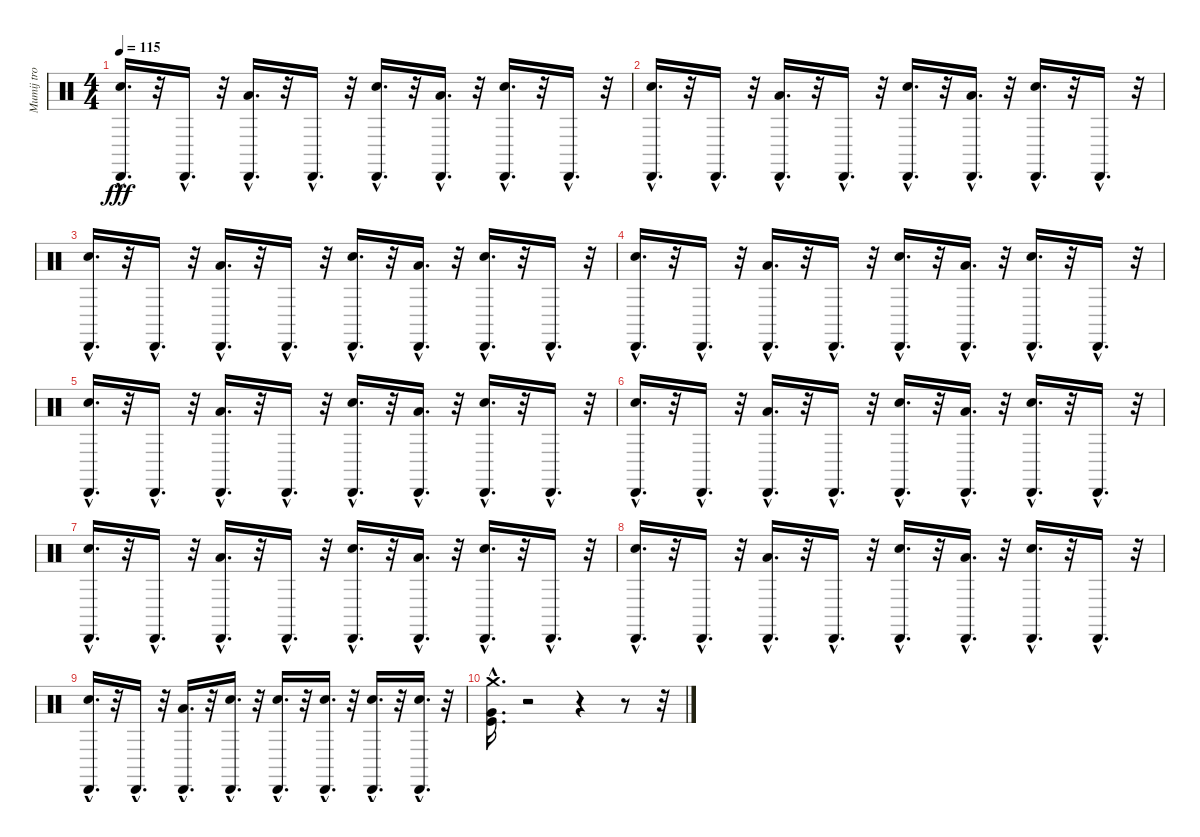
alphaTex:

\track (" Mumij troll" " Mumij tro") {instrument percussion}
\staff {score}
\articulation defaults
\ts (4 4)
\tempo 115
\clef neutral
\ks c
("Electric Snare (hit)"{hac} "Cabasa (hit)"{hac}).16{d dy fff} r.32 "Cabasa (hit)"{hac}.16{d} r.32 ("Low Tom (hit)"{hac} "Cabasa (hit)"{hac}).16{d} r.32 "Cabasa (hit)"{hac}.16{d} r.32 ("Electric Snare (hit)"{hac} "Cabasa (hit)"{hac}).16{d} r.32 ("Low Floor Tom (hit)"{hac} "Cabasa (hit)"{hac}).16{d} r.32 ("Snare (hit) 2"{hac} "Cabasa (hit)"{hac}).16{d} r.32 "Cabasa (hit)"{hac}.16{d} r.32 |
("Electric Snare (hit)"{hac} "Cabasa (hit)"{hac}).16{d} r.32 "Cabasa (hit)"{hac}.16{d} r.32 ("Low Tom (hit)"{hac} "Cabasa (hit)"{hac}).16{d} r.32 "Cabasa (hit)"{hac}.16{d} r.32 ("Electric Snare (hit)"{hac} "Cabasa (hit)"{hac}).16{d} r.32 ("Low Floor Tom (hit)"{hac} "Cabasa (hit)"{hac}).16{d} r.32 ("Snare (hit) 2"{hac} "Cabasa (hit)"{hac}).16{d} r.32 "Cabasa (hit)"{hac}.16{d} r.32 |
("Electric Snare (hit)"{hac} "Cabasa (hit)"{hac}).16{d} r.32 "Cabasa (hit)"{hac}.16{d} r.32 ("Low Tom (hit)"{hac} "Cabasa (hit)"{hac}).16{d} r.32 "Cabasa (hit)"{hac}.16{d} r.32 ("Electric Snare (hit)"{hac} "Cabasa (hit)"{hac}).16{d} r.32 ("Low Floor Tom (hit)"{hac} "Cabasa (hit)"{hac}).16{d} r.32 ("Snare (hit) 2"{hac} "Cabasa (hit)"{hac}).16{d} r.32 "Cabasa (hit)"{hac}.16{d} r.32 |
("Electric Snare (hit)"{hac} "Cabasa (hit)"{hac}).16{d} r.32 "Cabasa (hit)"{hac}.16{d} r.32 ("Low Tom (hit)"{hac} "Cabasa (hit)"{hac}).16{d} r.32 "Cabasa (hit)"{hac}.16{d} r.32 ("Electric Snare (hit)"{hac} "Cabasa (hit)"{hac}).16{d} r.32 ("Low Floor Tom (hit)"{hac} "Cabasa (hit)"{hac}).16{d} r.32 ("Snare (hit) 2"{hac} "Cabasa (hit)"{hac}).16{d} r.32 "Cabasa (hit)"{hac}.16{d} r.32 |
("Electric Snare (hit)"{hac} "Cabasa (hit)"{hac}).16{d} r.32 "Cabasa (hit)"{hac}.16{d} r.32 ("Low Tom (hit)"{hac} "Cabasa (hit)"{hac}).16{d} r.32 "Cabasa (hit)"{hac}.16{d} r.32 ("Electric Snare (hit)"{hac} "Cabasa (hit)"{hac}).16{d} r.32 ("Low Floor Tom (hit)"{hac} "Cabasa (hit)"{hac}).16{d} r.32 ("Snare (hit) 2"{hac} "Cabasa (hit)"{hac}).16{d} r.32 "Cabasa (hit)"{hac}.16{d} r.32 |
("Electric Snare (hit)"{hac} "Cabasa (hit)"{hac}).16{d} r.32 "Cabasa (hit)"{hac}.16{d} r.32 ("Low Tom (hit)"{hac} "Cabasa (hit)"{hac}).16{d} r.32 "Cabasa (hit)"{hac}.16{d} r.32 ("Electric Snare (hit)"{hac} "Cabasa (hit)"{hac}).16{d} r.32 ("Low Floor Tom (hit)"{hac} "Cabasa (hit)"{hac}).16{d} r.32 ("Snare (hit) 2"{hac} "Cabasa (hit)"{hac}).16{d} r.32 "Cabasa (hit)"{hac}.16{d} r.32 |
("Electric Snare (hit)"{hac} "Cabasa (hit)"{hac}).16{d} r.32 "Cabasa (hit)"{hac}.16{d} r.32 ("Low Tom (hit)"{hac} "Cabasa (hit)"{hac}).16{d} r.32 "Cabasa (hit)"{hac}.16{d} r.32 ("Electric Snare (hit)"{hac} "Cabasa (hit)"{hac}).16{d} r.32 ("Low Floor Tom (hit)"{hac} "Cabasa (hit)"{hac}).16{d} r.32 ("Snare (hit) 2"{hac} "Cabasa (hit)"{hac}).16{d} r.32 "Cabasa (hit)"{hac}.16{d} r.32 |
("Electric Snare (hit)"{hac} "Cabasa (hit)"{hac}).16{d} r.32 "Cabasa (hit)"{hac}.16{d} r.32 ("Low Tom (hit)"{hac} "Cabasa (hit)"{hac}).16{d} r.32 "Cabasa (hit)"{hac}.16{d} r.32 ("Electric Snare (hit)"{hac} "Cabasa (hit)"{hac}).16{d} r.32 ("Low Floor Tom (hit)"{hac} "Cabasa (hit)"{hac}).16{d} r.32 ("Snare (hit) 2"{hac} "Cabasa (hit)"{hac}).16{d} r.32 "Cabasa (hit)"{hac}.16{d} r.32 |
("Electric Snare (hit)"{hac} "Cabasa (hit)"{hac}).16{d} r.32 "Cabasa (hit)"{hac}.16{d} r.32 ("Low Tom (hit)"{hac} "Cabasa (hit)"{hac}).16{d} r.32 ("Electric Snare (hit)"{hac} "Cabasa (hit)"{hac}).16{d} r.32 ("Electric Snare (hit)"{hac} "Cabasa (hit)"{hac}).16{d} r.32 ("Electric Snare (hit)"{hac} "Cabasa (hit)"{hac}).16{d} r.32 ("Electric Snare (hit)"{hac} "Cabasa (hit)"{hac}).16{d} r.32 ("Electric Snare (hit)"{hac} "Cabasa (hit)"{hac}).16{d} r.32 |
("Kick (hit)"{hac} "Very Low Tom (hit)"{hac} "Crash medium (hit)"{hac}).16{d} r.2 r.4 r.8 r.32
